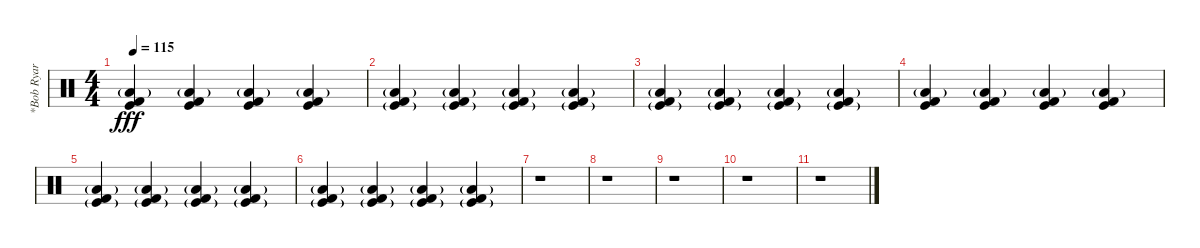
\track ("*Bob Ryar (Drums)" "*Bob Ryar ") {instrument percussion}
\staff {score}
\articulation defaults
\ts (4 4)
\tempo 115
\clef neutral
\ks c
("Low Floor Tom (hit)"{g} "Kick (hit)" "Kick (hit) 2").4{dy fff} ("Low Floor Tom (hit)"{g} "Kick (hit)" "Kick (hit) 2").4 ("Low Floor Tom (hit)"{g} "Kick (hit)" "Kick (hit) 2").4 ("Low Floor Tom (hit)"{g} "Kick (hit)" "Kick (hit) 2").4 |
("Low Floor Tom (hit)"{g} "Kick (hit)"{g} "Kick (hit) 2").4 ("Low Floor Tom (hit)"{g} "Kick (hit)"{g} "Kick (hit) 2").4 ("Low Floor Tom (hit)"{g} "Kick (hit)"{g} "Kick (hit) 2").4 ("Low Floor Tom (hit)"{g} "Kick (hit)"{g} "Kick (hit) 2").4 |
("Low Floor Tom (hit)"{g} "Kick (hit)"{g} "Kick (hit) 2").4 ("Low Floor Tom (hit)"{g} "Kick (hit)"{g} "Kick (hit) 2").4 ("Low Floor Tom (hit)"{g} "Kick (hit)"{g} "Kick (hit) 2").4 ("Low Floor Tom (hit)"{g} "Kick (hit)"{g} "Kick (hit) 2").4 |
("Low Floor Tom (hit)"{g} "Kick (hit)" "Kick (hit) 2").4 ("Low Floor Tom (hit)"{g} "Kick (hit)" "Kick (hit) 2").4 ("Low Floor Tom (hit)"{g} "Kick (hit)" "Kick (hit) 2").4 ("Low Floor Tom (hit)"{g} "Kick (hit)" "Kick (hit) 2").4 |
("Low Floor Tom (hit)"{g} "Kick (hit)"{g} "Kick (hit) 2").4 ("Low Floor Tom (hit)"{g} "Kick (hit)"{g} "Kick (hit) 2").4 ("Low Floor Tom (hit)"{g} "Kick (hit)"{g} "Kick (hit) 2").4 ("Low Floor Tom (hit)"{g} "Kick (hit)"{g} "Kick (hit) 2").4 |
("Low Floor Tom (hit)"{g} "Kick (hit)"{g} "Kick (hit) 2").4 ("Low Floor Tom (hit)"{g} "Kick (hit)"{g} "Kick (hit) 2").4 ("Low Floor Tom (hit)"{g} "Kick (hit)"{g} "Kick (hit) 2").4 ("Low Floor Tom (hit)"{g} "Kick (hit)"{g} "Kick (hit) 2").4 |
r.1 |
r.1 |
r.1 |
r.1 |
r.1
